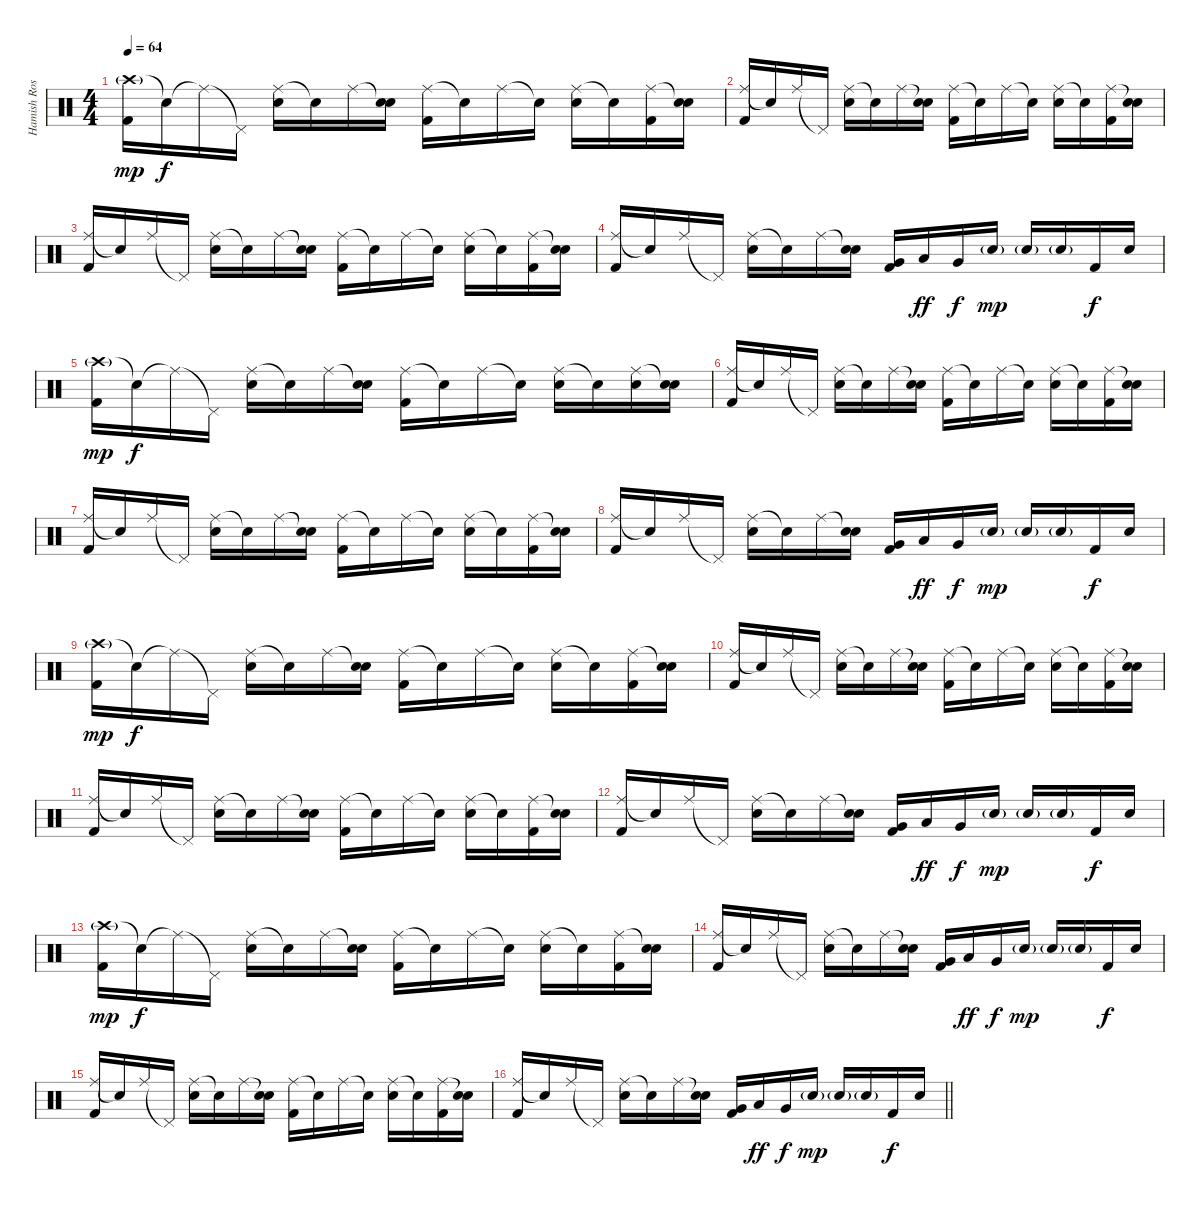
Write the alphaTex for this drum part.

\track ("Hamish Rosser" "Hamish Ros") {instrument percussion}
\staff {score}
\articulation defaults
\ts (4 4)
\tempo 64
\clef neutral
\ks c
("Crash high (hit)"{g} "Kick (hit) 2").16{dy mp} "Snare (hit)"{t}.16{dy f} "Ride (middle)"{t}.16 "Pedal Hi-Hat (hit)"{t}.16 ("Ride (middle)" "Electric Snare (hit)").16 "Snare (hit)"{t}.16 "Ride (middle)".16 ("Snare (hit)"{t} "Electric Snare (hit)").16 ("Ride (middle)" "Kick (hit) 2").16 "Snare (hit)"{t}.16 "Ride (middle)".16 "Snare (hit)"{t}.16 ("Ride (middle)" "Electric Snare (hit)").16 "Snare (hit)"{t}.16 ("Ride (middle)" "Kick (hit) 2").16 ("Snare (hit)"{t} "Electric Snare (hit)").16 |
("Ride (middle)" "Kick (hit) 2").16 "Snare (hit)"{t}.16 "Ride (middle)".16 "Pedal Hi-Hat (hit)"{t}.16 ("Ride (middle)" "Electric Snare (hit)").16 "Snare (hit)"{t}.16 "Ride (middle)".16 ("Snare (hit)"{t} "Electric Snare (hit)").16 ("Ride (middle)" "Kick (hit) 2").16 "Snare (hit)"{t}.16 "Ride (middle)".16 "Snare (hit)"{t}.16 ("Ride (middle)" "Electric Snare (hit)").16 "Snare (hit)"{t}.16 ("Ride (middle)" "Kick (hit) 2").16 ("Snare (hit)"{t} "Electric Snare (hit)").16 |
("Ride (middle)" "Kick (hit) 2").16 "Snare (hit)"{t}.16 "Ride (middle)".16 "Pedal Hi-Hat (hit)"{t}.16 ("Ride (middle)" "Electric Snare (hit)").16 "Snare (hit)"{t}.16 "Ride (middle)".16 ("Snare (hit)"{t} "Electric Snare (hit)").16 ("Ride (middle)" "Kick (hit) 2").16 "Snare (hit)"{t}.16 "Ride (middle)".16 "Snare (hit)"{t}.16 ("Ride (middle)" "Electric Snare (hit)").16 "Snare (hit)"{t}.16 ("Ride (middle)" "Kick (hit) 2").16 ("Snare (hit)"{t} "Electric Snare (hit)").16 |
("Ride (middle)" "Kick (hit) 2").16 "Snare (hit)"{t}.16 "Ride (middle)".16 "Pedal Hi-Hat (hit)"{t}.16 ("Ride (middle)" "Electric Snare (hit)").16 "Snare (hit)"{t}.16 "Ride (middle)".16 ("Snare (hit)"{t} "Electric Snare (hit)").16 ("Very Low Tom (hit)" "Kick (hit) 2").16 "Low Tom (hit)".16{dy ff} "Very Low Tom (hit)".16{dy f} "Electric Snare (hit)"{g}.16{dy mp} "Electric Snare (hit)"{g}.16 "Electric Snare (hit)"{g}.16 "Kick (hit) 2".16{dy f} "Electric Snare (hit)".16 |
("Crash high (hit)"{g} "Kick (hit) 2").16{dy mp} "Snare (hit)"{t}.16{dy f} "Ride (middle)"{t}.16 "Pedal Hi-Hat (hit)"{t}.16 ("Ride (middle)" "Electric Snare (hit)").16 "Snare (hit)"{t}.16 "Ride (middle)".16 ("Snare (hit)"{t} "Electric Snare (hit)").16 ("Ride (middle)" "Kick (hit) 2").16 "Snare (hit)"{t}.16 "Ride (middle)".16 "Snare (hit)"{t}.16 ("Ride (middle)" "Electric Snare (hit)").16 "Snare (hit)"{t}.16 ("Ride (middle)" "Electric Snare (hit)").16 ("Snare (hit)"{t} "Electric Snare (hit)").16 |
("Ride (middle)" "Kick (hit) 2").16 "Snare (hit)"{t}.16 "Ride (middle)".16 "Pedal Hi-Hat (hit)"{t}.16 ("Ride (middle)" "Electric Snare (hit)").16 "Snare (hit)"{t}.16 "Ride (middle)".16 ("Snare (hit)"{t} "Electric Snare (hit)").16 ("Ride (middle)" "Kick (hit) 2").16 "Snare (hit)"{t}.16 "Ride (middle)".16 "Snare (hit)"{t}.16 ("Ride (middle)" "Electric Snare (hit)").16 "Snare (hit)"{t}.16 ("Ride (middle)" "Kick (hit) 2").16 ("Snare (hit)"{t} "Electric Snare (hit)").16 |
("Ride (middle)" "Kick (hit) 2").16 "Snare (hit)"{t}.16 "Ride (middle)".16 "Pedal Hi-Hat (hit)"{t}.16 ("Ride (middle)" "Electric Snare (hit)").16 "Snare (hit)"{t}.16 "Ride (middle)".16 ("Snare (hit)"{t} "Electric Snare (hit)").16 ("Ride (middle)" "Kick (hit) 2").16 "Snare (hit)"{t}.16 "Ride (middle)".16 "Snare (hit)"{t}.16 ("Ride (middle)" "Electric Snare (hit)").16 "Snare (hit)"{t}.16 ("Ride (middle)" "Kick (hit) 2").16 ("Snare (hit)"{t} "Electric Snare (hit)").16 |
("Ride (middle)" "Kick (hit) 2").16 "Snare (hit)"{t}.16 "Ride (middle)".16 "Pedal Hi-Hat (hit)"{t}.16 ("Ride (middle)" "Electric Snare (hit)").16 "Snare (hit)"{t}.16 "Ride (middle)".16 ("Snare (hit)"{t} "Electric Snare (hit)").16 ("Very Low Tom (hit)" "Kick (hit) 2").16 "Low Tom (hit)".16{dy ff} "Very Low Tom (hit)".16{dy f} "Electric Snare (hit)"{g}.16{dy mp} "Electric Snare (hit)"{g}.16 "Electric Snare (hit)"{g}.16 "Kick (hit) 2".16{dy f} "Electric Snare (hit)".16 |
("Crash high (hit)"{g} "Kick (hit) 2").16{dy mp} "Snare (hit)"{t}.16{dy f} "Ride (middle)"{t}.16 "Pedal Hi-Hat (hit)"{t}.16 ("Ride (middle)" "Electric Snare (hit)").16 "Snare (hit)"{t}.16 "Ride (middle)".16 ("Snare (hit)"{t} "Electric Snare (hit)").16 ("Ride (middle)" "Kick (hit) 2").16 "Snare (hit)"{t}.16 "Ride (middle)".16 "Snare (hit)"{t}.16 ("Ride (middle)" "Electric Snare (hit)").16 "Snare (hit)"{t}.16 ("Ride (middle)" "Kick (hit) 2").16 ("Snare (hit)"{t} "Electric Snare (hit)").16 |
("Ride (middle)" "Kick (hit) 2").16 "Snare (hit)"{t}.16 "Ride (middle)".16 "Pedal Hi-Hat (hit)"{t}.16 ("Ride (middle)" "Electric Snare (hit)").16 "Snare (hit)"{t}.16 "Ride (middle)".16 ("Snare (hit)"{t} "Electric Snare (hit)").16 ("Ride (middle)" "Kick (hit) 2").16 "Snare (hit)"{t}.16 "Ride (middle)".16 "Snare (hit)"{t}.16 ("Ride (middle)" "Electric Snare (hit)").16 "Snare (hit)"{t}.16 ("Ride (middle)" "Kick (hit) 2").16 ("Snare (hit)"{t} "Electric Snare (hit)").16 |
("Ride (middle)" "Kick (hit) 2").16 "Snare (hit)"{t}.16 "Ride (middle)".16 "Pedal Hi-Hat (hit)"{t}.16 ("Ride (middle)" "Electric Snare (hit)").16 "Snare (hit)"{t}.16 "Ride (middle)".16 ("Snare (hit)"{t} "Electric Snare (hit)").16 ("Ride (middle)" "Kick (hit) 2").16 "Snare (hit)"{t}.16 "Ride (middle)".16 "Snare (hit)"{t}.16 ("Ride (middle)" "Electric Snare (hit)").16 "Snare (hit)"{t}.16 ("Ride (middle)" "Kick (hit) 2").16 ("Snare (hit)"{t} "Electric Snare (hit)").16 |
("Ride (middle)" "Kick (hit) 2").16 "Snare (hit)"{t}.16 "Ride (middle)".16 "Pedal Hi-Hat (hit)"{t}.16 ("Ride (middle)" "Electric Snare (hit)").16 "Snare (hit)"{t}.16 "Ride (middle)".16 ("Snare (hit)"{t} "Electric Snare (hit)").16 ("Very Low Tom (hit)" "Kick (hit) 2").16 "Low Tom (hit)".16{dy ff} "Very Low Tom (hit)".16{dy f} "Electric Snare (hit)"{g}.16{dy mp} "Electric Snare (hit)"{g}.16 "Electric Snare (hit)"{g}.16 "Kick (hit) 2".16{dy f} "Electric Snare (hit)".16 |
("Crash high (hit)"{g} "Kick (hit) 2").16{dy mp} "Snare (hit)"{t}.16{dy f} "Ride (middle)"{t}.16 "Pedal Hi-Hat (hit)"{t}.16 ("Ride (middle)" "Electric Snare (hit)").16 "Snare (hit)"{t}.16 "Ride (middle)".16 ("Snare (hit)"{t} "Electric Snare (hit)").16 ("Ride (middle)" "Kick (hit) 2").16 "Snare (hit)"{t}.16 "Ride (middle)".16 "Snare (hit)"{t}.16 ("Ride (middle)" "Electric Snare (hit)").16 "Snare (hit)"{t}.16 ("Ride (middle)" "Kick (hit) 2").16 ("Snare (hit)"{t} "Electric Snare (hit)").16 |
("Ride (middle)" "Kick (hit) 2").16 "Snare (hit)"{t}.16 "Ride (middle)".16 "Pedal Hi-Hat (hit)"{t}.16 ("Ride (middle)" "Electric Snare (hit)").16 "Snare (hit)"{t}.16 "Ride (middle)".16 ("Snare (hit)"{t} "Electric Snare (hit)").16 ("Very Low Tom (hit)" "Kick (hit) 2").16 "Low Tom (hit)".16{dy ff} "Very Low Tom (hit)".16{dy f} "Electric Snare (hit)"{g}.16{dy mp} "Electric Snare (hit)"{g}.16 "Electric Snare (hit)"{g}.16 "Kick (hit) 2".16{dy f} "Electric Snare (hit)".16 |
("Ride (middle)" "Kick (hit) 2").16 "Snare (hit)"{t}.16 "Ride (middle)".16 "Pedal Hi-Hat (hit)"{t}.16 ("Ride (middle)" "Electric Snare (hit)").16 "Snare (hit)"{t}.16 "Ride (middle)".16 ("Snare (hit)"{t} "Electric Snare (hit)").16 ("Ride (middle)" "Kick (hit) 2").16 "Snare (hit)"{t}.16 "Ride (middle)".16 "Snare (hit)"{t}.16 ("Ride (middle)" "Electric Snare (hit)").16 "Snare (hit)"{t}.16 ("Ride (middle)" "Kick (hit) 2").16 ("Snare (hit)"{t} "Electric Snare (hit)").16 |
\barLineRight lightlight
("Ride (middle)" "Kick (hit) 2").16 "Snare (hit)"{t}.16 "Ride (middle)".16 "Pedal Hi-Hat (hit)"{t}.16 ("Ride (middle)" "Electric Snare (hit)").16 "Snare (hit)"{t}.16 "Ride (middle)".16 ("Snare (hit)"{t} "Electric Snare (hit)").16 ("Very Low Tom (hit)" "Kick (hit) 2").16 "Low Tom (hit)".16{dy ff} "Very Low Tom (hit)".16{dy f} "Electric Snare (hit)"{g}.16{dy mp} "Electric Snare (hit)"{g}.16 "Electric Snare (hit)"{g}.16 "Kick (hit) 2".16{dy f} "Electric Snare (hit)".16
